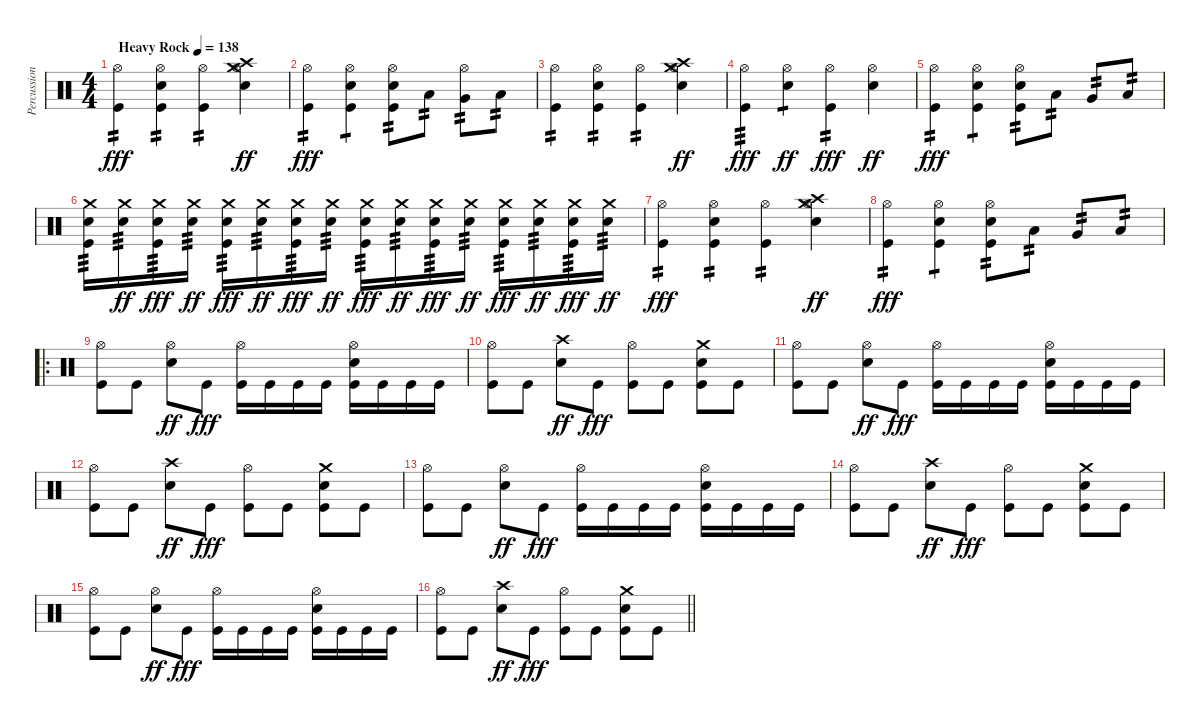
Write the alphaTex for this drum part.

\track ("Percussion" "Percussion") {instrument percussion}
\staff {score}
\articulation defaults
\ts (4 4)
\tempo (138 "Heavy Rock")
\clef neutral
\ks c
("Hi-Hat (open)" "Kick (hit)").4{tp 2 dy fff} ("Hi-Hat (open)" "Electric Snare (hit)" "Kick (hit)").4{tp 2} ("Hi-Hat (open)" "Kick (hit)").4{tp 2} ("Hi-Hat (open)" "Crash high (hit)" "Crash medium (hit)" "Electric Snare (hit)").4{dy ff} |
("Hi-Hat (open)" "Kick (hit)").4{tp 2 dy fff} ("Hi-Hat (open)" "Electric Snare (hit)" "Kick (hit)").4{tp 1} ("Hi-Hat (open)" "Electric Snare (hit)" "Kick (hit)").8{tp 2} "Low Tom (hit)".8{tp 2} ("Hi-Hat (open)" "Very Low Tom (hit)").8{tp 2} "Low Floor Tom (hit)".8{tp 2} |
("Hi-Hat (open)" "Kick (hit)").4{tp 2} ("Hi-Hat (open)" "Electric Snare (hit)" "Kick (hit)").4{tp 2} ("Hi-Hat (open)" "Kick (hit)").4{tp 2} ("Hi-Hat (open)" "Crash high (hit)" "Crash medium (hit)" "Electric Snare (hit)").4{dy ff} |
("Hi-Hat (open)" "Kick (hit)").4{tp 3 dy fff} ("Hi-Hat (open)" "Electric Snare (hit)").4{tp 1 dy ff} ("Hi-Hat (open)" "Kick (hit)").4{tp 2 dy fff} ("Hi-Hat (open)" "Electric Snare (hit)").4{dy ff} |
("Hi-Hat (open)" "Kick (hit)").4{tp 2 dy fff} ("Hi-Hat (open)" "Electric Snare (hit)" "Kick (hit)").4{tp 1} ("Hi-Hat (open)" "Electric Snare (hit)" "Kick (hit)").8{tp 2} "Low Tom (hit)".8{tp 2} "Very Low Tom (hit)".8{tp 2} "Low Floor Tom (hit)".8{tp 2} |
("Crash medium (hit)" "Electric Snare (hit)" "Kick (hit)").16{tp 3} ("Crash medium (hit)" "Electric Snare (hit)").16{tp 3 dy ff} ("Crash medium (hit)" "Electric Snare (hit)" "Kick (hit)").16{tp 3 dy fff} ("Crash medium (hit)" "Electric Snare (hit)").16{tp 3 dy ff} ("Crash medium (hit)" "Electric Snare (hit)" "Kick (hit)").16{tp 3 dy fff} ("Crash medium (hit)" "Electric Snare (hit)").16{tp 3 dy ff} ("Crash medium (hit)" "Electric Snare (hit)" "Kick (hit)").16{tp 3 dy fff} ("Crash medium (hit)" "Electric Snare (hit)").16{tp 3 dy ff} ("Crash medium (hit)" "Electric Snare (hit)" "Kick (hit)").16{tp 3 dy fff} ("Crash medium (hit)" "Electric Snare (hit)").16{tp 3 dy ff} ("Crash medium (hit)" "Electric Snare (hit)" "Kick (hit)").16{tp 3 dy fff} ("Crash medium (hit)" "Electric Snare (hit)").16{tp 3 dy ff} ("Crash medium (hit)" "Electric Snare (hit)" "Kick (hit)").16{tp 3 dy fff} ("Crash medium (hit)" "Electric Snare (hit)").16{tp 3 dy ff} ("Crash medium (hit)" "Electric Snare (hit)" "Kick (hit)").16{tp 3 dy fff} ("Crash medium (hit)" "Electric Snare (hit)").16{tp 3 dy ff} |
("Hi-Hat (open)" "Kick (hit)").4{tp 2 dy fff} ("Hi-Hat (open)" "Electric Snare (hit)" "Kick (hit)").4{tp 2} ("Hi-Hat (open)" "Kick (hit)").4{tp 2} ("Hi-Hat (open)" "Crash high (hit)" "Crash medium (hit)" "Electric Snare (hit)").4{dy ff} |
("Hi-Hat (open)" "Kick (hit)").4{tp 2 dy fff} ("Hi-Hat (open)" "Electric Snare (hit)" "Kick (hit)").4{tp 1} ("Hi-Hat (open)" "Electric Snare (hit)" "Kick (hit)").8{tp 2} "Low Tom (hit)".8{tp 2} "Very Low Tom (hit)".8{tp 2} "Low Floor Tom (hit)".8{tp 2} |
\ro
("Hi-Hat (open)" "Kick (hit)").8 "Kick (hit)".8 ("Hi-Hat (open)" "Electric Snare (hit)").8{dy ff} "Kick (hit)".8{dy fff} ("Hi-Hat (open)" "Kick (hit)").16 "Kick (hit)".16 "Kick (hit)".16 "Kick (hit)".16 ("Hi-Hat (open)" "Electric Snare (hit)" "Kick (hit)").16 "Kick (hit)".16 "Kick (hit)".16 "Kick (hit)".16 |
("Hi-Hat (open)" "Kick (hit)").8 "Kick (hit)".8 ("Crash high (hit)" "Electric Snare (hit)").8{dy ff} "Kick (hit)".8{dy fff} ("Hi-Hat (open)" "Kick (hit)").8 "Kick (hit)".8 ("Crash medium (hit)" "Electric Snare (hit)" "Kick (hit)").8 "Kick (hit)".8 |
("Hi-Hat (open)" "Kick (hit)").8 "Kick (hit)".8 ("Hi-Hat (open)" "Electric Snare (hit)").8{dy ff} "Kick (hit)".8{dy fff} ("Hi-Hat (open)" "Kick (hit)").16 "Kick (hit)".16 "Kick (hit)".16 "Kick (hit)".16 ("Hi-Hat (open)" "Electric Snare (hit)" "Kick (hit)").16 "Kick (hit)".16 "Kick (hit)".16 "Kick (hit)".16 |
("Hi-Hat (open)" "Kick (hit)").8 "Kick (hit)".8 ("Crash high (hit)" "Electric Snare (hit)").8{dy ff} "Kick (hit)".8{dy fff} ("Hi-Hat (open)" "Kick (hit)").8 "Kick (hit)".8 ("Crash medium (hit)" "Electric Snare (hit)" "Kick (hit)").8 "Kick (hit)".8 |
("Hi-Hat (open)" "Kick (hit)").8 "Kick (hit)".8 ("Hi-Hat (open)" "Electric Snare (hit)").8{dy ff} "Kick (hit)".8{dy fff} ("Hi-Hat (open)" "Kick (hit)").16 "Kick (hit)".16 "Kick (hit)".16 "Kick (hit)".16 ("Hi-Hat (open)" "Electric Snare (hit)" "Kick (hit)").16 "Kick (hit)".16 "Kick (hit)".16 "Kick (hit)".16 |
("Hi-Hat (open)" "Kick (hit)").8 "Kick (hit)".8 ("Crash high (hit)" "Electric Snare (hit)").8{dy ff} "Kick (hit)".8{dy fff} ("Hi-Hat (open)" "Kick (hit)").8 "Kick (hit)".8 ("Crash medium (hit)" "Electric Snare (hit)" "Kick (hit)").8 "Kick (hit)".8 |
("Hi-Hat (open)" "Kick (hit)").8 "Kick (hit)".8 ("Hi-Hat (open)" "Electric Snare (hit)").8{dy ff} "Kick (hit)".8{dy fff} ("Hi-Hat (open)" "Kick (hit)").16 "Kick (hit)".16 "Kick (hit)".16 "Kick (hit)".16 ("Hi-Hat (open)" "Electric Snare (hit)" "Kick (hit)").16 "Kick (hit)".16 "Kick (hit)".16 "Kick (hit)".16 |
\barLineRight lightlight
("Hi-Hat (open)" "Kick (hit)").8 "Kick (hit)".8 ("Crash high (hit)" "Electric Snare (hit)").8{dy ff} "Kick (hit)".8{dy fff} ("Hi-Hat (open)" "Kick (hit)").8 "Kick (hit)".8 ("Crash medium (hit)" "Electric Snare (hit)" "Kick (hit)").8 "Kick (hit)".8
